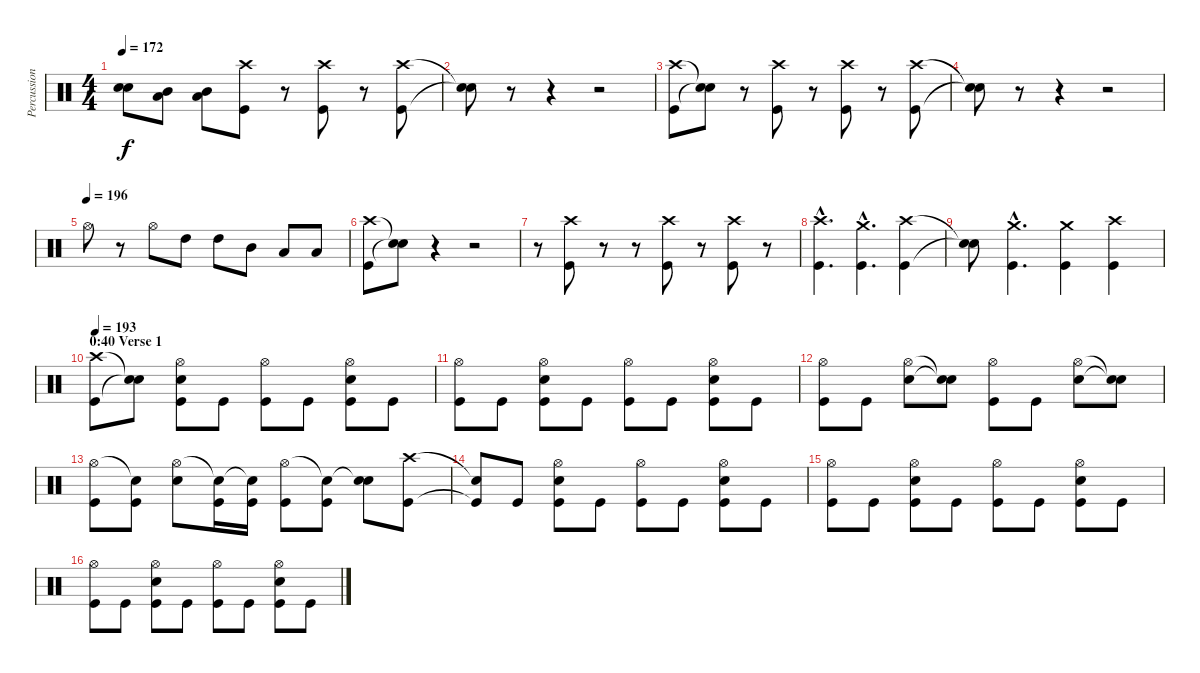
\track ("Percussion" "Percussion") {instrument percussion}
\staff {score}
\articulation defaults
\ts (4 4)
\tempo 172
\clef neutral
\ks c
("Snare (hit)"{t} "Snare (hit)"{t}).8{dy f} ("Mid Tom (hit)" "Low Tom (hit)").8 ("Mid Tom (hit)" "Low Tom (hit)").8 ("Crash high (hit)" "Kick (hit)").8 r.8 ("Crash high (hit)" "Kick (hit)").8 r.8 ("Crash high (hit)" "Kick (hit)").8 |
("Snare (hit)"{t} "Snare (hit)"{t}).8 r.8 r.4 r.2 |
("Crash high (hit)" "Kick (hit)").8 ("Snare (hit)"{t} "Snare (hit)"{t}).8 r.8 ("Crash high (hit)" "Kick (hit)").8 r.8 ("Crash high (hit)" "Kick (hit)").8 r.8 ("Crash high (hit)" "Kick (hit)").8 |
("Snare (hit)"{t} "Snare (hit)"{t}).8 r.8 r.4 r.2 |
\tempo (196)
"Hi-Hat (open)".8 r.8 "Hi-Hat (open)".8 "High Tom (hit)".8 "High Tom (hit)".8 "Mid Tom (hit)".8 "Low Tom (hit)".8 "Low Tom (hit)".8 |
("Crash high (hit)" "Kick (hit)").8 ("Snare (hit)"{t} "Snare (hit)"{t}).8 r.4 r.2 |
r.8 ("Crash high (hit)" "Kick (hit)").8 r.8 r.8 ("Crash high (hit)" "Kick (hit)").8 r.8 ("Crash high (hit)" "Kick (hit)").8 r.8 |
("Crash high (hit)"{hac} "Kick (hit)"{hac}).4{d} ("Crash medium (hit)"{hac} "Kick (hit)"{hac}).4{d} ("Crash high (hit)" "Kick (hit)").4 |
("Snare (hit)"{t} "Snare (hit)"{t}).8 ("Crash medium (hit)"{hac} "Kick (hit)"{hac}).4{d} ("Crash medium (hit)" "Kick (hit)").4 ("Crash high (hit)" "Kick (hit)").4 |
\section ("" "0:40 Verse 1")
\tempo 193
("Crash high (hit)" "Kick (hit)").8 ("Snare (hit)"{t} "Snare (hit)"{t}).8 ("Hi-Hat (open)" "Snare (hit) 2" "Kick (hit)").8 "Kick (hit)".8 ("Hi-Hat (open)" "Kick (hit)").8 "Kick (hit)".8 ("Hi-Hat (open)" "Snare (hit) 2" "Kick (hit)").8 "Kick (hit)".8 |
("Hi-Hat (open)" "Kick (hit)").8 "Kick (hit)".8 ("Hi-Hat (open)" "Snare (hit) 2" "Kick (hit)").8 "Kick (hit)".8 ("Hi-Hat (open)" "Kick (hit)").8 "Kick (hit)".8 ("Hi-Hat (open)" "Snare (hit) 2" "Kick (hit)").8 "Kick (hit)".8 |
("Hi-Hat (open)" "Kick (hit)").8 "Kick (hit)".8 ("Hi-Hat (open)" "Snare (hit) 2").8 ("Snare (hit)"{t} "Snare (hit)"{t}).8 ("Hi-Hat (open)" "Kick (hit)").8 "Kick (hit)".8 ("Hi-Hat (open)" "Snare (hit) 2").8 ("Snare (hit)"{t} "Snare (hit)"{t}).8 |
("Hi-Hat (open)" "Kick (hit)").8 ("Snare (hit)"{t} "Kick (hit)").8 ("Hi-Hat (open)" "Snare (hit) 2").8 ("Snare (hit)"{t} "Kick (hit)").16 ("Snare (hit)"{t} "Kick (hit)").16 ("Hi-Hat (open)" "Kick (hit)").8 ("Snare (hit)"{t} "Kick (hit)").8 ("Snare (hit)"{t} "Snare (hit) 2").8 ("Crash high (hit)" "Kick (hit)").8 |
("Snare (hit)"{t} "Kick (hit)"{t}).8 "Kick (hit)".8 ("Hi-Hat (open)" "Snare (hit) 2" "Kick (hit)").8 "Kick (hit)".8 ("Hi-Hat (open)" "Kick (hit)").8 "Kick (hit)".8 ("Hi-Hat (open)" "Snare (hit) 2" "Kick (hit)").8 "Kick (hit)".8 |
("Hi-Hat (open)" "Kick (hit)").8 "Kick (hit)".8 ("Hi-Hat (open)" "Snare (hit) 2" "Kick (hit)").8 "Kick (hit)".8 ("Hi-Hat (open)" "Kick (hit)").8 "Kick (hit)".8 ("Hi-Hat (open)" "Snare (hit) 2" "Kick (hit)").8 "Kick (hit)".8 |
("Hi-Hat (open)" "Kick (hit)").8 "Kick (hit)".8 ("Hi-Hat (open)" "Snare (hit) 2" "Kick (hit)").8 "Kick (hit)".8 ("Hi-Hat (open)" "Kick (hit)").8 "Kick (hit)".8 ("Hi-Hat (open)" "Snare (hit) 2" "Kick (hit)").8 "Kick (hit)".8
